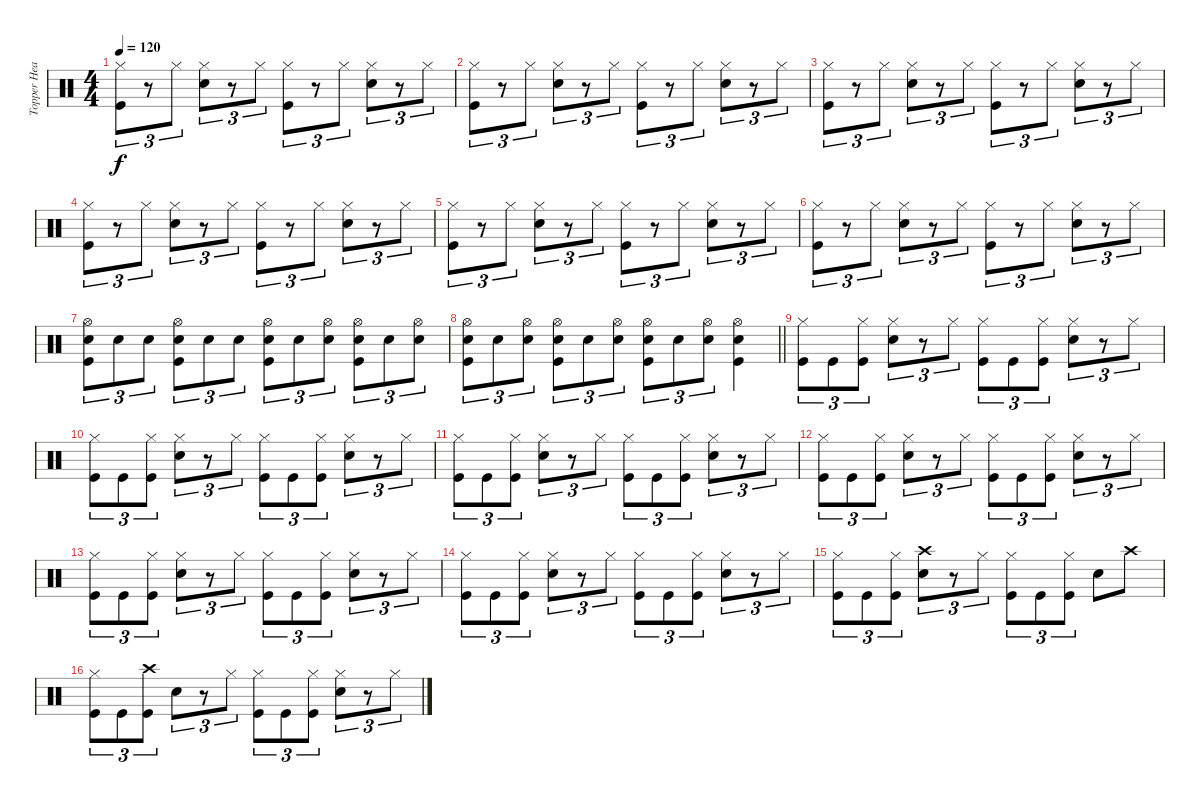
\track ("Topper Headon" "Topper Hea") {instrument percussion}
\staff {score}
\articulation defaults
\ts (4 4)
\tempo 120
\clef neutral
\ks c
("Hi-Hat (closed)" "Kick (hit)").8{tu (3 2) dy f} r.8{tu (3 2)} "Hi-Hat (closed)".8{tu (3 2)} ("Hi-Hat (closed)" "Electric Snare (hit)").8{tu (3 2)} r.8{tu (3 2)} "Hi-Hat (closed)".8{tu (3 2)} ("Hi-Hat (closed)" "Kick (hit)").8{tu (3 2)} r.8{tu (3 2)} "Hi-Hat (closed)".8{tu (3 2)} ("Hi-Hat (closed)" "Electric Snare (hit)").8{tu (3 2)} r.8{tu (3 2)} "Hi-Hat (closed)".8{tu (3 2)} |
("Hi-Hat (closed)" "Kick (hit)").8{tu (3 2)} r.8{tu (3 2)} "Hi-Hat (closed)".8{tu (3 2)} ("Hi-Hat (closed)" "Electric Snare (hit)").8{tu (3 2)} r.8{tu (3 2)} "Hi-Hat (closed)".8{tu (3 2)} ("Hi-Hat (closed)" "Kick (hit)").8{tu (3 2)} r.8{tu (3 2)} "Hi-Hat (closed)".8{tu (3 2)} ("Hi-Hat (closed)" "Electric Snare (hit)").8{tu (3 2)} r.8{tu (3 2)} "Hi-Hat (closed)".8{tu (3 2)} |
("Hi-Hat (closed)" "Kick (hit)").8{tu (3 2)} r.8{tu (3 2)} "Hi-Hat (closed)".8{tu (3 2)} ("Hi-Hat (closed)" "Electric Snare (hit)").8{tu (3 2)} r.8{tu (3 2)} "Hi-Hat (closed)".8{tu (3 2)} ("Hi-Hat (closed)" "Kick (hit)").8{tu (3 2)} r.8{tu (3 2)} "Hi-Hat (closed)".8{tu (3 2)} ("Hi-Hat (closed)" "Electric Snare (hit)").8{tu (3 2)} r.8{tu (3 2)} "Hi-Hat (closed)".8{tu (3 2)} |
("Hi-Hat (closed)" "Kick (hit)").8{tu (3 2)} r.8{tu (3 2)} "Hi-Hat (closed)".8{tu (3 2)} ("Hi-Hat (closed)" "Electric Snare (hit)").8{tu (3 2)} r.8{tu (3 2)} "Hi-Hat (closed)".8{tu (3 2)} ("Hi-Hat (closed)" "Kick (hit)").8{tu (3 2)} r.8{tu (3 2)} "Hi-Hat (closed)".8{tu (3 2)} ("Hi-Hat (closed)" "Electric Snare (hit)").8{tu (3 2)} r.8{tu (3 2)} "Hi-Hat (closed)".8{tu (3 2)} |
("Hi-Hat (closed)" "Kick (hit)").8{tu (3 2)} r.8{tu (3 2)} "Hi-Hat (closed)".8{tu (3 2)} ("Hi-Hat (closed)" "Electric Snare (hit)").8{tu (3 2)} r.8{tu (3 2)} "Hi-Hat (closed)".8{tu (3 2)} ("Hi-Hat (closed)" "Kick (hit)").8{tu (3 2)} r.8{tu (3 2)} "Hi-Hat (closed)".8{tu (3 2)} ("Hi-Hat (closed)" "Electric Snare (hit)").8{tu (3 2)} r.8{tu (3 2)} "Hi-Hat (closed)".8{tu (3 2)} |
("Hi-Hat (closed)" "Kick (hit)").8{tu (3 2)} r.8{tu (3 2)} "Hi-Hat (closed)".8{tu (3 2)} ("Hi-Hat (closed)" "Electric Snare (hit)").8{tu (3 2)} r.8{tu (3 2)} "Hi-Hat (closed)".8{tu (3 2)} ("Hi-Hat (closed)" "Kick (hit)").8{tu (3 2)} r.8{tu (3 2)} "Hi-Hat (closed)".8{tu (3 2)} ("Hi-Hat (closed)" "Electric Snare (hit)").8{tu (3 2)} r.8{tu (3 2)} "Hi-Hat (closed)".8{tu (3 2)} |
("Hi-Hat (open)" "Electric Snare (hit)" "Kick (hit)").8{tu (3 2)} "Electric Snare (hit)".8{tu (3 2)} "Electric Snare (hit)".8{tu (3 2)} ("Hi-Hat (open)" "Electric Snare (hit)" "Kick (hit)").8{tu (3 2)} "Electric Snare (hit)".8{tu (3 2)} "Electric Snare (hit)".8{tu (3 2)} ("Hi-Hat (open)" "Electric Snare (hit)" "Kick (hit)").8{tu (3 2)} "Electric Snare (hit)".8{tu (3 2)} ("Hi-Hat (open)" "Electric Snare (hit)").8{tu (3 2)} ("Hi-Hat (open)" "Electric Snare (hit)" "Kick (hit)").8{tu (3 2)} "Electric Snare (hit)".8{tu (3 2)} ("Hi-Hat (open)" "Electric Snare (hit)").8{tu (3 2)} |
\barLineRight lightlight
("Hi-Hat (open)" "Electric Snare (hit)" "Kick (hit)").8{tu (3 2)} "Electric Snare (hit)".8{tu (3 2)} ("Hi-Hat (open)" "Electric Snare (hit)").8{tu (3 2)} ("Hi-Hat (open)" "Electric Snare (hit)" "Kick (hit)").8{tu (3 2)} "Electric Snare (hit)".8{tu (3 2)} ("Hi-Hat (open)" "Electric Snare (hit)").8{tu (3 2)} ("Hi-Hat (open)" "Electric Snare (hit)" "Kick (hit)").8{tu (3 2)} "Electric Snare (hit)".8{tu (3 2)} ("Hi-Hat (open)" "Electric Snare (hit)").8{tu (3 2)} ("Hi-Hat (open)" "Electric Snare (hit)" "Kick (hit)").4 |
("Hi-Hat (closed)" "Kick (hit)").8{tu (3 2)} "Kick (hit)".8{tu (3 2)} ("Hi-Hat (closed)" "Kick (hit)").8{tu (3 2)} ("Hi-Hat (closed)" "Electric Snare (hit)").8{tu (3 2)} r.8{tu (3 2)} "Hi-Hat (closed)".8{tu (3 2)} ("Hi-Hat (closed)" "Kick (hit)").8{tu (3 2)} "Kick (hit)".8{tu (3 2)} ("Hi-Hat (closed)" "Kick (hit)").8{tu (3 2)} ("Hi-Hat (closed)" "Electric Snare (hit)").8{tu (3 2)} r.8{tu (3 2)} "Hi-Hat (closed)".8{tu (3 2)} |
("Hi-Hat (closed)" "Kick (hit)").8{tu (3 2)} "Kick (hit)".8{tu (3 2)} ("Hi-Hat (closed)" "Kick (hit)").8{tu (3 2)} ("Hi-Hat (closed)" "Electric Snare (hit)").8{tu (3 2)} r.8{tu (3 2)} "Hi-Hat (closed)".8{tu (3 2)} ("Hi-Hat (closed)" "Kick (hit)").8{tu (3 2)} "Kick (hit)".8{tu (3 2)} ("Hi-Hat (closed)" "Kick (hit)").8{tu (3 2)} ("Hi-Hat (closed)" "Electric Snare (hit)").8{tu (3 2)} r.8{tu (3 2)} "Hi-Hat (closed)".8{tu (3 2)} |
("Hi-Hat (closed)" "Kick (hit)").8{tu (3 2)} "Kick (hit)".8{tu (3 2)} ("Hi-Hat (closed)" "Kick (hit)").8{tu (3 2)} ("Hi-Hat (closed)" "Electric Snare (hit)").8{tu (3 2)} r.8{tu (3 2)} "Hi-Hat (closed)".8{tu (3 2)} ("Hi-Hat (closed)" "Kick (hit)").8{tu (3 2)} "Kick (hit)".8{tu (3 2)} ("Hi-Hat (closed)" "Kick (hit)").8{tu (3 2)} ("Hi-Hat (closed)" "Electric Snare (hit)").8{tu (3 2)} r.8{tu (3 2)} "Hi-Hat (closed)".8{tu (3 2)} |
("Hi-Hat (closed)" "Kick (hit)").8{tu (3 2)} "Kick (hit)".8{tu (3 2)} ("Hi-Hat (closed)" "Kick (hit)").8{tu (3 2)} ("Hi-Hat (closed)" "Electric Snare (hit)").8{tu (3 2)} r.8{tu (3 2)} "Hi-Hat (closed)".8{tu (3 2)} ("Hi-Hat (closed)" "Kick (hit)").8{tu (3 2)} "Kick (hit)".8{tu (3 2)} ("Hi-Hat (closed)" "Kick (hit)").8{tu (3 2)} ("Hi-Hat (closed)" "Electric Snare (hit)").8{tu (3 2)} r.8{tu (3 2)} "Hi-Hat (closed)".8{tu (3 2)} |
("Hi-Hat (closed)" "Kick (hit)").8{tu (3 2)} "Kick (hit)".8{tu (3 2)} ("Hi-Hat (closed)" "Kick (hit)").8{tu (3 2)} ("Hi-Hat (closed)" "Electric Snare (hit)").8{tu (3 2)} r.8{tu (3 2)} "Hi-Hat (closed)".8{tu (3 2)} ("Hi-Hat (closed)" "Kick (hit)").8{tu (3 2)} "Kick (hit)".8{tu (3 2)} ("Hi-Hat (closed)" "Kick (hit)").8{tu (3 2)} ("Hi-Hat (closed)" "Electric Snare (hit)").8{tu (3 2)} r.8{tu (3 2)} "Hi-Hat (closed)".8{tu (3 2)} |
("Hi-Hat (closed)" "Kick (hit)").8{tu (3 2)} "Kick (hit)".8{tu (3 2)} ("Hi-Hat (closed)" "Kick (hit)").8{tu (3 2)} ("Hi-Hat (closed)" "Electric Snare (hit)").8{tu (3 2)} r.8{tu (3 2)} "Hi-Hat (closed)".8{tu (3 2)} ("Hi-Hat (closed)" "Kick (hit)").8{tu (3 2)} "Kick (hit)".8{tu (3 2)} ("Hi-Hat (closed)" "Kick (hit)").8{tu (3 2)} ("Hi-Hat (closed)" "Electric Snare (hit)").8{tu (3 2)} r.8{tu (3 2)} "Hi-Hat (closed)".8{tu (3 2)} |
("Hi-Hat (closed)" "Kick (hit)").8{tu (3 2)} "Kick (hit)".8{tu (3 2)} ("Hi-Hat (closed)" "Kick (hit)").8{tu (3 2)} ("Crash high (hit)" "Electric Snare (hit)").8{tu (3 2)} r.8{tu (3 2)} "Hi-Hat (closed)".8{tu (3 2)} ("Hi-Hat (closed)" "Kick (hit)").8{tu (3 2)} "Kick (hit)".8{tu (3 2)} ("Hi-Hat (closed)" "Kick (hit)").8{tu (3 2)} "Electric Snare (hit)".8 "Crash high (hit)".8 |
("Hi-Hat (closed)" "Kick (hit)").8{tu (3 2)} "Kick (hit)".8{tu (3 2)} ("Crash high (hit)" "Kick (hit)").8{tu (3 2)} "Electric Snare (hit)".8{tu (3 2)} r.8{tu (3 2)} "Hi-Hat (closed)".8{tu (3 2)} ("Hi-Hat (closed)" "Kick (hit)").8{tu (3 2)} "Kick (hit)".8{tu (3 2)} ("Hi-Hat (closed)" "Kick (hit)").8{tu (3 2)} ("Hi-Hat (closed)" "Electric Snare (hit)").8{tu (3 2)} r.8{tu (3 2)} "Hi-Hat (closed)".8{tu (3 2)}
